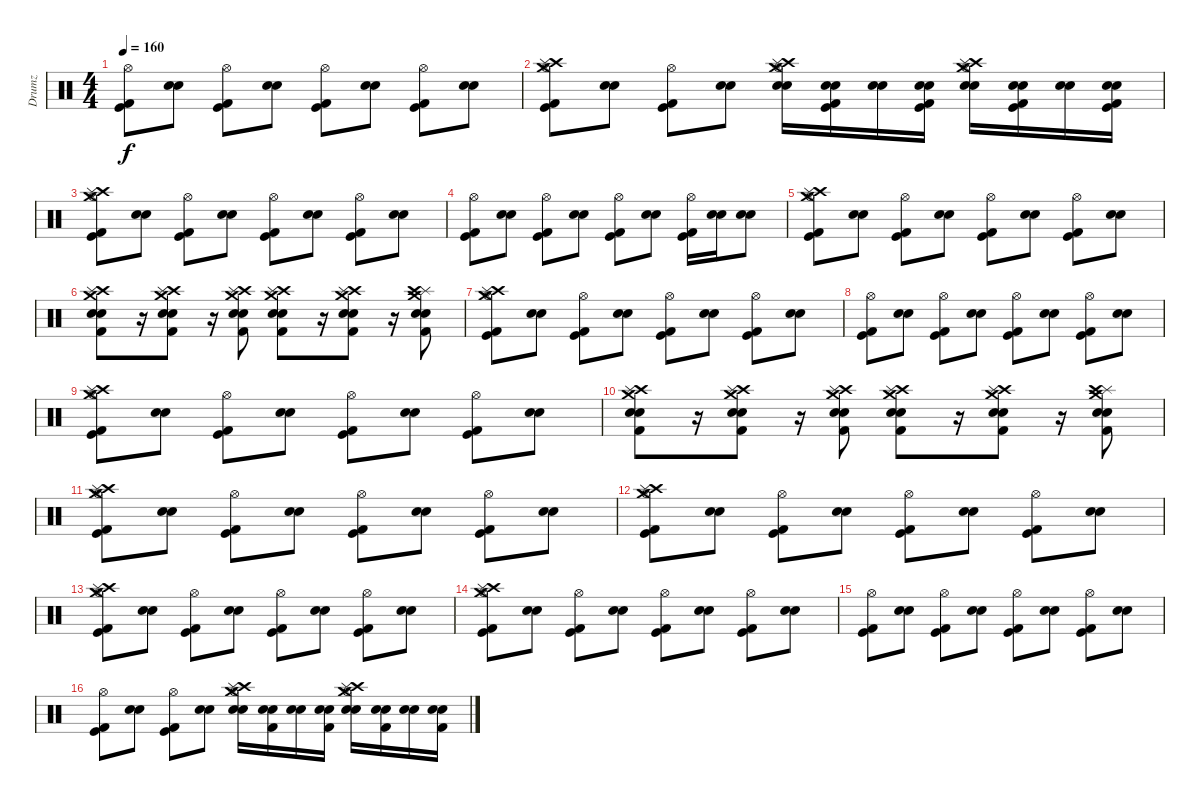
\track ("Drumz" "Drumz") {instrument percussion}
\staff {score}
\articulation defaults
\ts (4 4)
\tempo 160
\clef neutral
\ks c
("Kick (hit)" "Kick (hit) 2" "Hi-Hat (open)").8{dy f} ("Electric Snare (hit)" "Snare (hit) 2").8 ("Kick (hit) 2" "Kick (hit)" "Hi-Hat (open)").8 ("Snare (hit) 2" "Electric Snare (hit)").8 ("Kick (hit) 2" "Kick (hit)" "Hi-Hat (open)").8 ("Electric Snare (hit)" "Snare (hit) 2").8 ("Kick (hit)" "Kick (hit) 2" "Hi-Hat (open)").8 ("Snare (hit) 2" "Electric Snare (hit)").8 |
("Kick (hit)" "Kick (hit) 2" "Hi-Hat (open)" "Crash high (hit)" "Splash (hit)" "Crash medium (hit)").8 ("Electric Snare (hit)" "Snare (hit) 2").8 ("Kick (hit) 2" "Kick (hit)" "Hi-Hat (open)").8 ("Snare (hit) 2" "Electric Snare (hit)").8 ("Crash medium (hit)" "Electric Snare (hit)" "Hi-Hat (open)" "Crash high (hit)" "Splash (hit)" "Snare (hit) 2").16 ("Kick (hit) 2" "Kick (hit)" "Electric Snare (hit)" "Snare (hit) 2").16 ("Electric Snare (hit)" "Snare (hit) 2").16 ("Snare (hit) 2" "Electric Snare (hit)" "Kick (hit) 2" "Kick (hit)").16 ("Crash medium (hit)" "Snare (hit) 2" "Hi-Hat (open)" "Crash high (hit)" "Splash (hit)" "Electric Snare (hit)").16 ("Kick (hit)" "Kick (hit) 2" "Snare (hit) 2" "Electric Snare (hit)").16 ("Snare (hit) 2" "Electric Snare (hit)").16 ("Electric Snare (hit)" "Snare (hit) 2" "Kick (hit) 2" "Kick (hit)").16 |
("Kick (hit)" "Kick (hit) 2" "Hi-Hat (open)" "Crash high (hit)" "Crash medium (hit)" "Splash (hit)").8{volume 12} ("Electric Snare (hit)" "Snare (hit) 2").8 ("Kick (hit) 2" "Kick (hit)" "Hi-Hat (open)").8 ("Snare (hit) 2" "Electric Snare (hit)").8 ("Kick (hit) 2" "Kick (hit)" "Hi-Hat (open)").8 ("Electric Snare (hit)" "Snare (hit) 2").8 ("Kick (hit)" "Kick (hit) 2" "Hi-Hat (open)").8 ("Snare (hit) 2" "Electric Snare (hit)").8 |
("Kick (hit)" "Kick (hit) 2" "Hi-Hat (open)").8 ("Electric Snare (hit)" "Snare (hit) 2").8 ("Kick (hit) 2" "Kick (hit)" "Hi-Hat (open)").8 ("Snare (hit) 2" "Electric Snare (hit)").8 ("Kick (hit) 2" "Kick (hit)" "Hi-Hat (open)").8 ("Electric Snare (hit)" "Snare (hit) 2").8 ("Kick (hit)" "Kick (hit) 2" "Hi-Hat (open)").16 ("Snare (hit) 2" "Electric Snare (hit)").16 ("Snare (hit) 2" "Electric Snare (hit)").8 |
("Kick (hit)" "Kick (hit) 2" "Hi-Hat (open)" "Crash high (hit)" "Splash (hit)" "Crash medium (hit)").8 ("Electric Snare (hit)" "Snare (hit) 2").8 ("Kick (hit) 2" "Kick (hit)" "Hi-Hat (open)").8 ("Snare (hit) 2" "Electric Snare (hit)").8 ("Kick (hit) 2" "Kick (hit)" "Hi-Hat (open)").8 ("Electric Snare (hit)" "Snare (hit) 2").8 ("Kick (hit)" "Kick (hit) 2" "Hi-Hat (open)").8 ("Snare (hit) 2" "Electric Snare (hit)").8 |
("Snare (hit) 2" "Electric Snare (hit)" "Kick (hit) 2" "Crash high (hit)" "Splash (hit)" "Crash medium (hit)").8 r.16 ("Snare (hit) 2" "Electric Snare (hit)" "Kick (hit) 2" "Crash high (hit)" "Splash (hit)" "Crash medium (hit)").8 r.16 ("Kick (hit) 2" "Snare (hit) 2" "Electric Snare (hit)" "Crash high (hit)" "Splash (hit)" "Crash medium (hit)").8 ("Crash high (hit)" "Splash (hit)" "Crash medium (hit)" "Electric Snare (hit)" "Snare (hit) 2" "Kick (hit) 2").8 r.16 ("Crash high (hit)" "Splash (hit)" "Crash medium (hit)" "Electric Snare (hit)" "Snare (hit) 2" "Kick (hit) 2").8 r.16 ("Splash (hit)" "Crash medium (hit)" "Electric Snare (hit)" "Snare (hit) 2" "Kick (hit) 2" "Crash high (hit)").8 |
("Kick (hit)" "Kick (hit) 2" "Hi-Hat (open)" "Crash high (hit)" "Crash medium (hit)" "Splash (hit)").8{volume 12} ("Electric Snare (hit)" "Snare (hit) 2").8 ("Kick (hit) 2" "Kick (hit)" "Hi-Hat (open)").8 ("Snare (hit) 2" "Electric Snare (hit)").8 ("Kick (hit) 2" "Kick (hit)" "Hi-Hat (open)").8 ("Electric Snare (hit)" "Snare (hit) 2").8 ("Kick (hit)" "Kick (hit) 2" "Hi-Hat (open)").8 ("Snare (hit) 2" "Electric Snare (hit)").8 |
("Kick (hit)" "Kick (hit) 2" "Hi-Hat (open)").8 ("Electric Snare (hit)" "Snare (hit) 2").8 ("Kick (hit) 2" "Kick (hit)" "Hi-Hat (open)").8 ("Snare (hit) 2" "Electric Snare (hit)").8 ("Kick (hit) 2" "Kick (hit)" "Hi-Hat (open)").8 ("Electric Snare (hit)" "Snare (hit) 2").8 ("Kick (hit)" "Kick (hit) 2" "Hi-Hat (open)").8 ("Snare (hit) 2" "Electric Snare (hit)").8 |
("Kick (hit)" "Kick (hit) 2" "Hi-Hat (open)" "Crash high (hit)" "Splash (hit)" "Crash medium (hit)").8 ("Electric Snare (hit)" "Snare (hit) 2").8 ("Kick (hit) 2" "Kick (hit)" "Hi-Hat (open)").8 ("Snare (hit) 2" "Electric Snare (hit)").8 ("Kick (hit) 2" "Kick (hit)" "Hi-Hat (open)").8 ("Electric Snare (hit)" "Snare (hit) 2").8 ("Kick (hit)" "Kick (hit) 2" "Hi-Hat (open)").8 ("Snare (hit) 2" "Electric Snare (hit)").8 |
("Snare (hit) 2" "Electric Snare (hit)" "Kick (hit) 2" "Crash high (hit)" "Splash (hit)" "Crash medium (hit)").8 r.16 ("Snare (hit) 2" "Electric Snare (hit)" "Kick (hit) 2" "Crash high (hit)" "Splash (hit)" "Crash medium (hit)").8 r.16 ("Kick (hit) 2" "Snare (hit) 2" "Electric Snare (hit)" "Crash high (hit)" "Splash (hit)" "Crash medium (hit)").8 ("Crash high (hit)" "Splash (hit)" "Crash medium (hit)" "Electric Snare (hit)" "Snare (hit) 2" "Kick (hit) 2").8 r.16 ("Crash high (hit)" "Splash (hit)" "Crash medium (hit)" "Electric Snare (hit)" "Snare (hit) 2" "Kick (hit) 2").8 r.16 ("Splash (hit)" "Crash medium (hit)" "Electric Snare (hit)" "Snare (hit) 2" "Kick (hit) 2" "Crash high (hit)").8 |
("Kick (hit)" "Kick (hit) 2" "Hi-Hat (open)" "Crash high (hit)" "Crash medium (hit)" "Splash (hit)").8{volume 12} ("Electric Snare (hit)" "Snare (hit) 2").8 ("Kick (hit) 2" "Kick (hit)" "Hi-Hat (open)").8 ("Snare (hit) 2" "Electric Snare (hit)").8 ("Kick (hit) 2" "Kick (hit)" "Hi-Hat (open)").8 ("Electric Snare (hit)" "Snare (hit) 2").8 ("Kick (hit)" "Kick (hit) 2" "Hi-Hat (open)").8 ("Snare (hit) 2" "Electric Snare (hit)").8 |
("Kick (hit)" "Kick (hit) 2" "Hi-Hat (open)" "Crash high (hit)" "Splash (hit)" "Crash medium (hit)").8 ("Electric Snare (hit)" "Snare (hit) 2").8 ("Kick (hit) 2" "Kick (hit)" "Hi-Hat (open)").8 ("Snare (hit) 2" "Electric Snare (hit)").8 ("Kick (hit) 2" "Kick (hit)" "Hi-Hat (open)").8 ("Electric Snare (hit)" "Snare (hit) 2").8 ("Kick (hit)" "Kick (hit) 2" "Hi-Hat (open)").8 ("Snare (hit) 2" "Electric Snare (hit)").8 |
("Kick (hit)" "Kick (hit) 2" "Hi-Hat (open)" "Crash high (hit)" "Crash medium (hit)" "Splash (hit)").8 ("Electric Snare (hit)" "Snare (hit) 2").8 ("Kick (hit) 2" "Kick (hit)" "Hi-Hat (open)").8 ("Snare (hit) 2" "Electric Snare (hit)").8 ("Kick (hit) 2" "Kick (hit)" "Hi-Hat (open)").8 ("Electric Snare (hit)" "Snare (hit) 2").8 ("Kick (hit)" "Kick (hit) 2" "Hi-Hat (open)").8 ("Snare (hit) 2" "Electric Snare (hit)").8 |
("Kick (hit)" "Kick (hit) 2" "Hi-Hat (open)" "Crash high (hit)" "Splash (hit)" "Crash medium (hit)").8 ("Electric Snare (hit)" "Snare (hit) 2").8 ("Kick (hit) 2" "Kick (hit)" "Hi-Hat (open)").8 ("Snare (hit) 2" "Electric Snare (hit)").8 ("Kick (hit) 2" "Kick (hit)" "Hi-Hat (open)").8 ("Electric Snare (hit)" "Snare (hit) 2").8 ("Kick (hit)" "Kick (hit) 2" "Hi-Hat (open)").8 ("Snare (hit) 2" "Electric Snare (hit)").8 |
("Kick (hit)" "Kick (hit) 2" "Hi-Hat (open)").8 ("Electric Snare (hit)" "Snare (hit) 2").8 ("Kick (hit) 2" "Kick (hit)" "Hi-Hat (open)").8 ("Snare (hit) 2" "Electric Snare (hit)").8 ("Kick (hit) 2" "Kick (hit)" "Hi-Hat (open)").8 ("Electric Snare (hit)" "Snare (hit) 2").8 ("Kick (hit)" "Kick (hit) 2" "Hi-Hat (open)").8 ("Snare (hit) 2" "Electric Snare (hit)").8 |
("Kick (hit)" "Kick (hit) 2" "Hi-Hat (open)").8 ("Electric Snare (hit)" "Snare (hit) 2").8 ("Kick (hit) 2" "Kick (hit)" "Hi-Hat (open)").8 ("Snare (hit) 2" "Electric Snare (hit)").8 ("Hi-Hat (open)" "Crash high (hit)" "Electric Snare (hit)" "Snare (hit) 2" "Crash medium (hit)" "Splash (hit)").16 ("Snare (hit) 2" "Electric Snare (hit)" "Kick (hit) 2").16 ("Electric Snare (hit)" "Snare (hit) 2").16 ("Electric Snare (hit)" "Snare (hit) 2" "Kick (hit) 2").16 ("Hi-Hat (open)" "Crash high (hit)" "Electric Snare (hit)" "Snare (hit) 2" "Splash (hit)" "Crash medium (hit)").16 ("Electric Snare (hit)" "Snare (hit) 2" "Kick (hit) 2").16 ("Electric Snare (hit)" "Snare (hit) 2").16 ("Electric Snare (hit)" "Snare (hit) 2" "Kick (hit) 2").16
